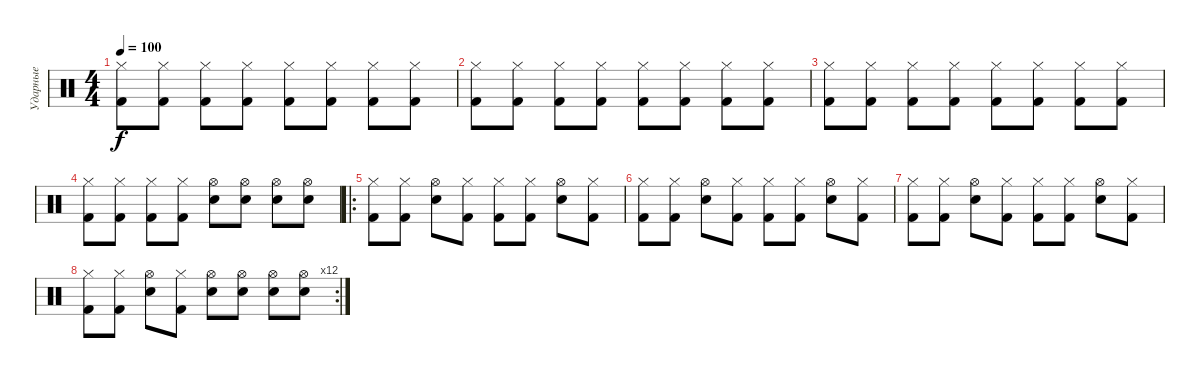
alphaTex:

\track ("Ударные" "Ударные") {instrument percussion}
\staff {score}
\articulation defaults
\ts (4 4)
\tempo 100
\clef neutral
\ks c
("Kick (hit) 2" "Hi-Hat (closed)").8{dy f} ("Kick (hit) 2" "Hi-Hat (closed)").8 ("Hi-Hat (closed)" "Kick (hit) 2").8 ("Kick (hit) 2" "Hi-Hat (closed)").8 ("Hi-Hat (closed)" "Kick (hit) 2").8 ("Kick (hit) 2" "Hi-Hat (closed)").8 ("Kick (hit) 2" "Hi-Hat (closed)").8 ("Kick (hit) 2" "Hi-Hat (closed)").8 |
("Kick (hit) 2" "Hi-Hat (closed)").8 ("Kick (hit) 2" "Hi-Hat (closed)").8 ("Hi-Hat (closed)" "Kick (hit) 2").8 ("Kick (hit) 2" "Hi-Hat (closed)").8 ("Hi-Hat (closed)" "Kick (hit) 2").8 ("Kick (hit) 2" "Hi-Hat (closed)").8 ("Kick (hit) 2" "Hi-Hat (closed)").8 ("Kick (hit) 2" "Hi-Hat (closed)").8 |
("Kick (hit) 2" "Hi-Hat (closed)").8 ("Kick (hit) 2" "Hi-Hat (closed)").8 ("Hi-Hat (closed)" "Kick (hit) 2").8 ("Kick (hit) 2" "Hi-Hat (closed)").8 ("Hi-Hat (closed)" "Kick (hit) 2").8 ("Kick (hit) 2" "Hi-Hat (closed)").8 ("Kick (hit) 2" "Hi-Hat (closed)").8 ("Kick (hit) 2" "Hi-Hat (closed)").8 |
("Kick (hit) 2" "Hi-Hat (closed)").8 ("Kick (hit) 2" "Hi-Hat (closed)").8 ("Kick (hit) 2" "Hi-Hat (closed)").8 ("Kick (hit) 2" "Hi-Hat (closed)").8 ("Hi-Hat (open)" "Electric Snare (hit)").8 ("Hi-Hat (open)" "Electric Snare (hit)").8 ("Electric Snare (hit)" "Hi-Hat (open)").8 ("Hi-Hat (open)" "Electric Snare (hit)").8 |
\ro
("Kick (hit) 2" "Hi-Hat (closed)").8 ("Kick (hit) 2" "Hi-Hat (closed)").8 ("Electric Snare (hit)" "Hi-Hat (open)").8 ("Kick (hit) 2" "Hi-Hat (closed)").8 ("Kick (hit) 2" "Hi-Hat (closed)").8 ("Kick (hit) 2" "Hi-Hat (closed)").8 ("Electric Snare (hit)" "Hi-Hat (open)").8 ("Kick (hit) 2" "Hi-Hat (closed)").8 |
("Kick (hit) 2" "Hi-Hat (closed)").8 ("Kick (hit) 2" "Hi-Hat (closed)").8 ("Electric Snare (hit)" "Hi-Hat (open)").8 ("Kick (hit) 2" "Hi-Hat (closed)").8 ("Kick (hit) 2" "Hi-Hat (closed)").8 ("Kick (hit) 2" "Hi-Hat (closed)").8 ("Electric Snare (hit)" "Hi-Hat (open)").8 ("Kick (hit) 2" "Hi-Hat (closed)").8 |
("Kick (hit) 2" "Hi-Hat (closed)").8 ("Kick (hit) 2" "Hi-Hat (closed)").8 ("Electric Snare (hit)" "Hi-Hat (open)").8 ("Kick (hit) 2" "Hi-Hat (closed)").8 ("Kick (hit) 2" "Hi-Hat (closed)").8 ("Kick (hit) 2" "Hi-Hat (closed)").8 ("Electric Snare (hit)" "Hi-Hat (open)").8 ("Kick (hit) 2" "Hi-Hat (closed)").8 |
\rc 12
("Kick (hit) 2" "Hi-Hat (closed)").8 ("Kick (hit) 2" "Hi-Hat (closed)").8 ("Electric Snare (hit)" "Hi-Hat (open)").8 ("Kick (hit) 2" "Hi-Hat (closed)").8 ("Electric Snare (hit)" "Hi-Hat (open)").8 ("Hi-Hat (open)" "Electric Snare (hit)").8 ("Electric Snare (hit)" "Hi-Hat (open)").8 ("Hi-Hat (open)" "Electric Snare (hit)").8
